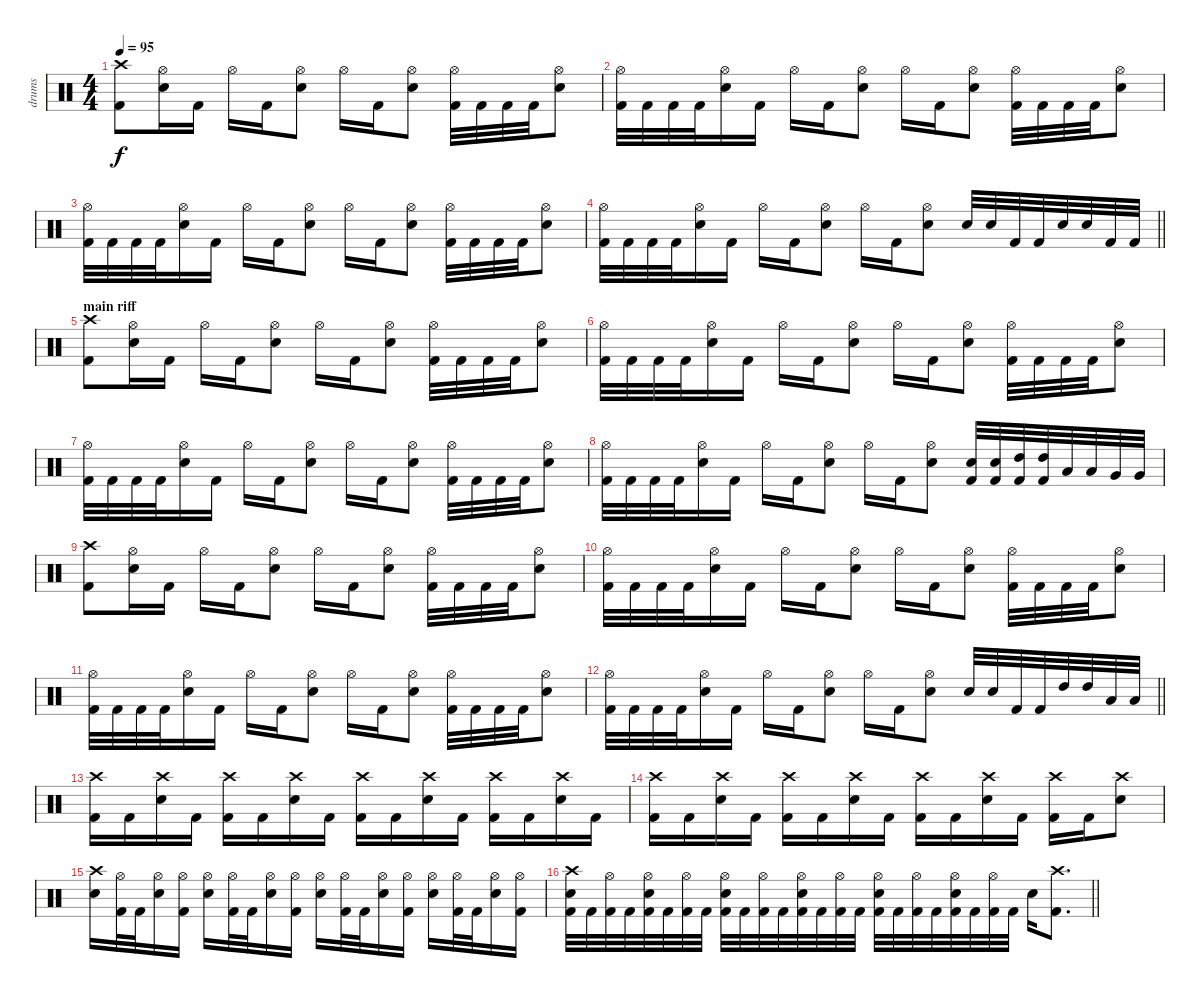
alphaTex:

\track ("drums" "drums") {instrument percussion}
\staff {score}
\articulation defaults
\ts (4 4)
\section ("" "")
\tempo 95
\clef neutral
\ks c
("Crash high (hit)" "Kick (hit) 2").8{dy f} ("Hi-Hat (open)" "Electric Snare (hit)").16 "Kick (hit) 2".16 "Hi-Hat (open)".16 "Kick (hit) 2".16 ("Hi-Hat (open)" "Electric Snare (hit)").8 "Hi-Hat (open)".16 "Kick (hit) 2".16 ("Hi-Hat (open)" "Electric Snare (hit)").8 ("Hi-Hat (open)" "Kick (hit) 2").32 "Kick (hit) 2".32 "Kick (hit) 2".32 "Kick (hit) 2".32 ("Hi-Hat (open)" "Electric Snare (hit)").8 |
("Hi-Hat (open)" "Kick (hit) 2").32 "Kick (hit) 2".32 "Kick (hit) 2".32 "Kick (hit) 2".32 ("Hi-Hat (open)" "Electric Snare (hit)").16 "Kick (hit) 2".16 "Hi-Hat (open)".16 "Kick (hit) 2".16 ("Hi-Hat (open)" "Electric Snare (hit)").8 "Hi-Hat (open)".16 "Kick (hit) 2".16 ("Hi-Hat (open)" "Electric Snare (hit)").8 ("Hi-Hat (open)" "Kick (hit) 2").32 "Kick (hit) 2".32 "Kick (hit) 2".32 "Kick (hit) 2".32 ("Hi-Hat (open)" "Electric Snare (hit)").8 |
("Hi-Hat (open)" "Kick (hit) 2").32 "Kick (hit) 2".32 "Kick (hit) 2".32 "Kick (hit) 2".32 ("Hi-Hat (open)" "Electric Snare (hit)").16 "Kick (hit) 2".16 "Hi-Hat (open)".16 "Kick (hit) 2".16 ("Hi-Hat (open)" "Electric Snare (hit)").8 "Hi-Hat (open)".16 "Kick (hit) 2".16 ("Hi-Hat (open)" "Electric Snare (hit)").8 ("Hi-Hat (open)" "Kick (hit) 2").32 "Kick (hit) 2".32 "Kick (hit) 2".32 "Kick (hit) 2".32 ("Hi-Hat (open)" "Electric Snare (hit)").8 |
\barLineRight lightlight
("Hi-Hat (open)" "Kick (hit) 2").32 "Kick (hit) 2".32 "Kick (hit) 2".32 "Kick (hit) 2".32 ("Hi-Hat (open)" "Electric Snare (hit)").16 "Kick (hit) 2".16 "Hi-Hat (open)".16 "Kick (hit) 2".16 ("Hi-Hat (open)" "Electric Snare (hit)").8 "Hi-Hat (open)".16 "Kick (hit) 2".16 ("Hi-Hat (open)" "Electric Snare (hit)").8 "Electric Snare (hit)".32 "Electric Snare (hit)".32 "Kick (hit) 2".32 "Kick (hit) 2".32 "Electric Snare (hit)".32 "Electric Snare (hit)".32 "Kick (hit) 2".32 "Kick (hit) 2".32 |
\section ("" "main riff")
("Crash high (hit)" "Kick (hit) 2").8 ("Hi-Hat (open)" "Electric Snare (hit)").16 "Kick (hit) 2".16 "Hi-Hat (open)".16 "Kick (hit) 2".16 ("Hi-Hat (open)" "Electric Snare (hit)").8 "Hi-Hat (open)".16 "Kick (hit) 2".16 ("Hi-Hat (open)" "Electric Snare (hit)").8 ("Hi-Hat (open)" "Kick (hit) 2").32 "Kick (hit) 2".32 "Kick (hit) 2".32 "Kick (hit) 2".32 ("Hi-Hat (open)" "Electric Snare (hit)").8 |
("Hi-Hat (open)" "Kick (hit) 2").32 "Kick (hit) 2".32 "Kick (hit) 2".32 "Kick (hit) 2".32 ("Hi-Hat (open)" "Electric Snare (hit)").16 "Kick (hit) 2".16 "Hi-Hat (open)".16 "Kick (hit) 2".16 ("Hi-Hat (open)" "Electric Snare (hit)").8 "Hi-Hat (open)".16 "Kick (hit) 2".16 ("Hi-Hat (open)" "Electric Snare (hit)").8 ("Hi-Hat (open)" "Kick (hit) 2").32 "Kick (hit) 2".32 "Kick (hit) 2".32 "Kick (hit) 2".32 ("Hi-Hat (open)" "Electric Snare (hit)").8 |
("Hi-Hat (open)" "Kick (hit) 2").32 "Kick (hit) 2".32 "Kick (hit) 2".32 "Kick (hit) 2".32 ("Hi-Hat (open)" "Electric Snare (hit)").16 "Kick (hit) 2".16 "Hi-Hat (open)".16 "Kick (hit) 2".16 ("Hi-Hat (open)" "Electric Snare (hit)").8 "Hi-Hat (open)".16 "Kick (hit) 2".16 ("Hi-Hat (open)" "Electric Snare (hit)").8 ("Hi-Hat (open)" "Kick (hit) 2").32 "Kick (hit) 2".32 "Kick (hit) 2".32 "Kick (hit) 2".32 ("Hi-Hat (open)" "Electric Snare (hit)").8 |
("Hi-Hat (open)" "Kick (hit) 2").32 "Kick (hit) 2".32 "Kick (hit) 2".32 "Kick (hit) 2".32 ("Hi-Hat (open)" "Electric Snare (hit)").16 "Kick (hit) 2".16 "Hi-Hat (open)".16 "Kick (hit) 2".16 ("Hi-Hat (open)" "Electric Snare (hit)").8 "Hi-Hat (open)".16 "Kick (hit) 2".16 ("Hi-Hat (open)" "Electric Snare (hit)").8 ("Electric Snare (hit)" "Kick (hit) 2").32 ("Electric Snare (hit)" "Kick (hit) 2").32 ("High Tom (hit)" "Kick (hit) 2").32 ("High Tom (hit)" "Kick (hit) 2").32 "Low Tom (hit)".32 "Low Tom (hit)".32 "Very Low Tom (hit)".32 "Very Low Tom (hit)".32 |
("Crash high (hit)" "Kick (hit) 2").8 ("Hi-Hat (open)" "Electric Snare (hit)").16 "Kick (hit) 2".16 "Hi-Hat (open)".16 "Kick (hit) 2".16 ("Hi-Hat (open)" "Electric Snare (hit)").8 "Hi-Hat (open)".16 "Kick (hit) 2".16 ("Hi-Hat (open)" "Electric Snare (hit)").8 ("Hi-Hat (open)" "Kick (hit) 2").32 "Kick (hit) 2".32 "Kick (hit) 2".32 "Kick (hit) 2".32 ("Hi-Hat (open)" "Electric Snare (hit)").8 |
("Hi-Hat (open)" "Kick (hit) 2").32 "Kick (hit) 2".32 "Kick (hit) 2".32 "Kick (hit) 2".32 ("Hi-Hat (open)" "Electric Snare (hit)").16 "Kick (hit) 2".16 "Hi-Hat (open)".16 "Kick (hit) 2".16 ("Hi-Hat (open)" "Electric Snare (hit)").8 "Hi-Hat (open)".16 "Kick (hit) 2".16 ("Hi-Hat (open)" "Electric Snare (hit)").8 ("Hi-Hat (open)" "Kick (hit) 2").32 "Kick (hit) 2".32 "Kick (hit) 2".32 "Kick (hit) 2".32 ("Hi-Hat (open)" "Electric Snare (hit)").8 |
("Hi-Hat (open)" "Kick (hit) 2").32 "Kick (hit) 2".32 "Kick (hit) 2".32 "Kick (hit) 2".32 ("Hi-Hat (open)" "Electric Snare (hit)").16 "Kick (hit) 2".16 "Hi-Hat (open)".16 "Kick (hit) 2".16 ("Hi-Hat (open)" "Electric Snare (hit)").8 "Hi-Hat (open)".16 "Kick (hit) 2".16 ("Hi-Hat (open)" "Electric Snare (hit)").8 ("Hi-Hat (open)" "Kick (hit) 2").32 "Kick (hit) 2".32 "Kick (hit) 2".32 "Kick (hit) 2".32 ("Hi-Hat (open)" "Electric Snare (hit)").8 |
\barLineRight lightlight
("Hi-Hat (open)" "Kick (hit) 2").32 "Kick (hit) 2".32 "Kick (hit) 2".32 "Kick (hit) 2".32 ("Hi-Hat (open)" "Electric Snare (hit)").16 "Kick (hit) 2".16 "Hi-Hat (open)".16 "Kick (hit) 2".16 ("Hi-Hat (open)" "Electric Snare (hit)").8 "Hi-Hat (open)".16 "Kick (hit) 2".16 ("Hi-Hat (open)" "Electric Snare (hit)").8 "Electric Snare (hit)".32 "Electric Snare (hit)".32 "Kick (hit) 2".32 "Kick (hit) 2".32 "High Tom (hit)".32 "High Tom (hit)".32 "Low Tom (hit)".32 "Low Tom (hit)".32 |
\section ("" "")
("Crash high (hit)" "Kick (hit) 2").16 "Kick (hit) 2".16 ("Crash high (hit)" "Electric Snare (hit)").16 "Kick (hit) 2".16 ("Crash high (hit)" "Kick (hit) 2").16 "Kick (hit) 2".16 ("Crash high (hit)" "Electric Snare (hit)").16 "Kick (hit) 2".16 ("Crash high (hit)" "Kick (hit) 2").16 "Kick (hit) 2".16 ("Crash high (hit)" "Electric Snare (hit)").16 "Kick (hit) 2".16 ("Crash high (hit)" "Kick (hit) 2").16 "Kick (hit) 2".16 ("Crash high (hit)" "Electric Snare (hit)").16 "Kick (hit) 2".16 |
("Crash high (hit)" "Kick (hit) 2").16 "Kick (hit) 2".16 ("Crash high (hit)" "Electric Snare (hit)").16 "Kick (hit) 2".16 ("Crash high (hit)" "Kick (hit) 2").16 "Kick (hit) 2".16 ("Crash high (hit)" "Electric Snare (hit)").16 "Kick (hit) 2".16 ("Crash high (hit)" "Kick (hit) 2").16 "Kick (hit) 2".16 ("Crash high (hit)" "Electric Snare (hit)").16 "Kick (hit) 2".16 ("Crash high (hit)" "Kick (hit) 2").16 "Kick (hit) 2".16 ("Crash high (hit)" "Electric Snare (hit)").8 |
("Crash high (hit)" "Electric Snare (hit)").16 ("Hi-Hat (open)" "Kick (hit) 2").32 "Kick (hit) 2".32 ("Hi-Hat (open)" "Electric Snare (hit)").16 ("Hi-Hat (open)" "Kick (hit) 2").16 ("Hi-Hat (open)" "Electric Snare (hit)").16 ("Hi-Hat (open)" "Kick (hit) 2").32 "Kick (hit) 2".32 ("Hi-Hat (open)" "Electric Snare (hit)").16 ("Hi-Hat (open)" "Kick (hit) 2").16 ("Hi-Hat (open)" "Electric Snare (hit)").16 ("Hi-Hat (open)" "Kick (hit) 2").32 "Kick (hit) 2".32 ("Hi-Hat (open)" "Electric Snare (hit)").16 ("Hi-Hat (open)" "Kick (hit) 2").16 ("Hi-Hat (open)" "Electric Snare (hit)").16 ("Hi-Hat (open)" "Kick (hit) 2").32 "Kick (hit) 2".32 ("Hi-Hat (open)" "Electric Snare (hit)").16 ("Hi-Hat (open)" "Kick (hit) 2").16 |
\barLineRight lightlight
("Crash high (hit)" "Electric Snare (hit)" "Kick (hit) 2").32 "Kick (hit) 2".32 ("Hi-Hat (open)" "Kick (hit) 2").32 "Kick (hit) 2".32 ("Hi-Hat (open)" "Electric Snare (hit)" "Kick (hit) 2").32 "Kick (hit) 2".32 ("Hi-Hat (open)" "Kick (hit) 2").32 "Kick (hit) 2".32 ("Hi-Hat (open)" "Electric Snare (hit)" "Kick (hit) 2").32 "Kick (hit) 2".32 ("Hi-Hat (open)" "Kick (hit) 2").32 "Kick (hit) 2".32 ("Hi-Hat (open)" "Electric Snare (hit)" "Kick (hit) 2").32 "Kick (hit) 2".32 ("Hi-Hat (open)" "Kick (hit) 2").32 "Kick (hit) 2".32 ("Hi-Hat (open)" "Electric Snare (hit)" "Kick (hit) 2").32 "Kick (hit) 2".32 ("Hi-Hat (open)" "Kick (hit) 2").32 "Kick (hit) 2".32 ("Hi-Hat (open)" "Electric Snare (hit)" "Kick (hit) 2").32 "Kick (hit) 2".32 ("Hi-Hat (open)" "Kick (hit) 2").32 "Kick (hit) 2".32 "Electric Snare (hit)".16 ("Crash high (hit)" "Kick (hit) 2").8{d}
